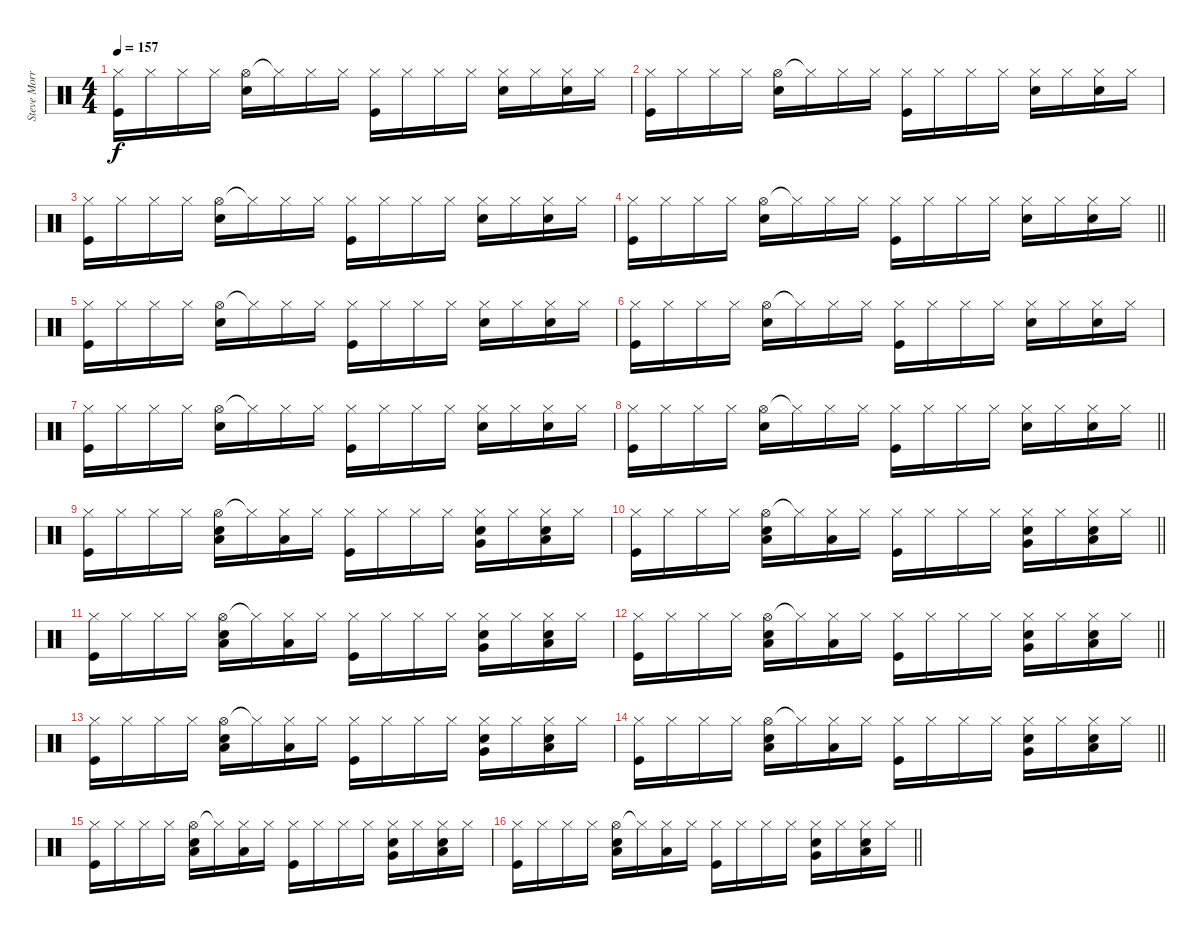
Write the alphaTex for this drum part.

\track ("Steve Morris" "Steve Morr") {instrument percussion}
\staff {score}
\articulation defaults
\ts (4 4)
\tempo 157
\clef neutral
\ks c
("Hi-Hat (closed)" "Kick (hit)").16{dy f} "Hi-Hat (closed)".16 "Hi-Hat (closed)".16 "Hi-Hat (closed)".16 ("Hi-Hat (open)" "Electric Snare (hit)").16 "Hi-Hat (closed)"{t}.16 "Hi-Hat (closed)".16 "Hi-Hat (closed)".16 ("Hi-Hat (closed)" "Kick (hit)").16 "Hi-Hat (closed)".16 "Hi-Hat (closed)".16 "Hi-Hat (closed)".16 ("Hi-Hat (closed)" "Electric Snare (hit)").16 "Hi-Hat (closed)".16 ("Hi-Hat (closed)" "Electric Snare (hit)").16 "Hi-Hat (closed)".16 |
("Hi-Hat (closed)" "Kick (hit)").16 "Hi-Hat (closed)".16 "Hi-Hat (closed)".16 "Hi-Hat (closed)".16 ("Hi-Hat (open)" "Electric Snare (hit)").16 "Hi-Hat (closed)"{t}.16 "Hi-Hat (closed)".16 "Hi-Hat (closed)".16 ("Hi-Hat (closed)" "Kick (hit)").16 "Hi-Hat (closed)".16 "Hi-Hat (closed)".16 "Hi-Hat (closed)".16 ("Hi-Hat (closed)" "Electric Snare (hit)").16 "Hi-Hat (closed)".16 ("Hi-Hat (closed)" "Electric Snare (hit)").16 "Hi-Hat (closed)".16 |
("Hi-Hat (closed)" "Kick (hit)").16 "Hi-Hat (closed)".16 "Hi-Hat (closed)".16 "Hi-Hat (closed)".16 ("Hi-Hat (open)" "Electric Snare (hit)").16 "Hi-Hat (closed)"{t}.16 "Hi-Hat (closed)".16 "Hi-Hat (closed)".16 ("Hi-Hat (closed)" "Kick (hit)").16 "Hi-Hat (closed)".16 "Hi-Hat (closed)".16 "Hi-Hat (closed)".16 ("Hi-Hat (closed)" "Electric Snare (hit)").16 "Hi-Hat (closed)".16 ("Hi-Hat (closed)" "Electric Snare (hit)").16 "Hi-Hat (closed)".16 |
\barLineRight lightlight
("Hi-Hat (closed)" "Kick (hit)").16 "Hi-Hat (closed)".16 "Hi-Hat (closed)".16 "Hi-Hat (closed)".16 ("Hi-Hat (open)" "Electric Snare (hit)").16 "Hi-Hat (closed)"{t}.16 "Hi-Hat (closed)".16 "Hi-Hat (closed)".16 ("Hi-Hat (closed)" "Kick (hit)").16 "Hi-Hat (closed)".16 "Hi-Hat (closed)".16 "Hi-Hat (closed)".16 ("Hi-Hat (closed)" "Electric Snare (hit)").16 "Hi-Hat (closed)".16 ("Hi-Hat (closed)" "Electric Snare (hit)").16 "Hi-Hat (closed)".16 |
("Hi-Hat (closed)" "Kick (hit)").16 "Hi-Hat (closed)".16 "Hi-Hat (closed)".16 "Hi-Hat (closed)".16 ("Hi-Hat (open)" "Electric Snare (hit)").16 "Hi-Hat (closed)"{t}.16 "Hi-Hat (closed)".16 "Hi-Hat (closed)".16 ("Hi-Hat (closed)" "Kick (hit)").16 "Hi-Hat (closed)".16 "Hi-Hat (closed)".16 "Hi-Hat (closed)".16 ("Hi-Hat (closed)" "Electric Snare (hit)").16 "Hi-Hat (closed)".16 ("Hi-Hat (closed)" "Electric Snare (hit)").16 "Hi-Hat (closed)".16 |
("Hi-Hat (closed)" "Kick (hit)").16 "Hi-Hat (closed)".16 "Hi-Hat (closed)".16 "Hi-Hat (closed)".16 ("Hi-Hat (open)" "Electric Snare (hit)").16 "Hi-Hat (closed)"{t}.16 "Hi-Hat (closed)".16 "Hi-Hat (closed)".16 ("Hi-Hat (closed)" "Kick (hit)").16 "Hi-Hat (closed)".16 "Hi-Hat (closed)".16 "Hi-Hat (closed)".16 ("Hi-Hat (closed)" "Electric Snare (hit)").16 "Hi-Hat (closed)".16 ("Hi-Hat (closed)" "Electric Snare (hit)").16 "Hi-Hat (closed)".16 |
("Hi-Hat (closed)" "Kick (hit)").16 "Hi-Hat (closed)".16 "Hi-Hat (closed)".16 "Hi-Hat (closed)".16 ("Hi-Hat (open)" "Electric Snare (hit)").16 "Hi-Hat (closed)"{t}.16 "Hi-Hat (closed)".16 "Hi-Hat (closed)".16 ("Hi-Hat (closed)" "Kick (hit)").16 "Hi-Hat (closed)".16 "Hi-Hat (closed)".16 "Hi-Hat (closed)".16 ("Hi-Hat (closed)" "Electric Snare (hit)").16 "Hi-Hat (closed)".16 ("Hi-Hat (closed)" "Electric Snare (hit)").16 "Hi-Hat (closed)".16 |
\barLineRight lightlight
("Hi-Hat (closed)" "Kick (hit)").16 "Hi-Hat (closed)".16 "Hi-Hat (closed)".16 "Hi-Hat (closed)".16 ("Hi-Hat (open)" "Electric Snare (hit)").16 "Hi-Hat (closed)"{t}.16 "Hi-Hat (closed)".16 "Hi-Hat (closed)".16 ("Hi-Hat (closed)" "Kick (hit)").16 "Hi-Hat (closed)".16 "Hi-Hat (closed)".16 "Hi-Hat (closed)".16 ("Hi-Hat (closed)" "Electric Snare (hit)").16 "Hi-Hat (closed)".16 ("Hi-Hat (closed)" "Electric Snare (hit)").16 "Hi-Hat (closed)".16 |
("Hi-Hat (closed)" "Kick (hit)").16 "Hi-Hat (closed)".16 "Hi-Hat (closed)".16 "Hi-Hat (closed)".16 ("Hi-Hat (open)" "Low Tom (hit)" "Electric Snare (hit)").16 "Hi-Hat (closed)"{t}.16 ("Hi-Hat (closed)" "Low Tom (hit)").16 "Hi-Hat (closed)".16 ("Hi-Hat (closed)" "Kick (hit)").16 "Hi-Hat (closed)".16 "Hi-Hat (closed)".16 "Hi-Hat (closed)".16 ("Hi-Hat (closed)" "Very Low Tom (hit)" "Electric Snare (hit)").16 "Hi-Hat (closed)".16 ("Hi-Hat (closed)" "Low Floor Tom (hit)" "Electric Snare (hit)").16 "Hi-Hat (closed)".16 |
\barLineRight lightlight
("Hi-Hat (closed)" "Kick (hit)").16 "Hi-Hat (closed)".16 "Hi-Hat (closed)".16 "Hi-Hat (closed)".16 ("Hi-Hat (open)" "Low Tom (hit)" "Electric Snare (hit)").16 "Hi-Hat (closed)"{t}.16 ("Hi-Hat (closed)" "Low Tom (hit)").16 "Hi-Hat (closed)".16 ("Hi-Hat (closed)" "Kick (hit)").16 "Hi-Hat (closed)".16 "Hi-Hat (closed)".16 "Hi-Hat (closed)".16 ("Hi-Hat (closed)" "Very Low Tom (hit)" "Electric Snare (hit)").16 "Hi-Hat (closed)".16 ("Hi-Hat (closed)" "Low Floor Tom (hit)" "Electric Snare (hit)").16 "Hi-Hat (closed)".16 |
("Hi-Hat (closed)" "Kick (hit)").16 "Hi-Hat (closed)".16 "Hi-Hat (closed)".16 "Hi-Hat (closed)".16 ("Hi-Hat (open)" "Low Tom (hit)" "Electric Snare (hit)").16 "Hi-Hat (closed)"{t}.16 ("Hi-Hat (closed)" "Low Tom (hit)").16 "Hi-Hat (closed)".16 ("Hi-Hat (closed)" "Kick (hit)").16 "Hi-Hat (closed)".16 "Hi-Hat (closed)".16 "Hi-Hat (closed)".16 ("Hi-Hat (closed)" "Very Low Tom (hit)" "Electric Snare (hit)").16 "Hi-Hat (closed)".16 ("Hi-Hat (closed)" "Low Floor Tom (hit)" "Electric Snare (hit)").16 "Hi-Hat (closed)".16 |
\barLineRight lightlight
("Hi-Hat (closed)" "Kick (hit)").16 "Hi-Hat (closed)".16 "Hi-Hat (closed)".16 "Hi-Hat (closed)".16 ("Hi-Hat (open)" "Low Tom (hit)" "Electric Snare (hit)").16 "Hi-Hat (closed)"{t}.16 ("Hi-Hat (closed)" "Low Tom (hit)").16 "Hi-Hat (closed)".16 ("Hi-Hat (closed)" "Kick (hit)").16 "Hi-Hat (closed)".16 "Hi-Hat (closed)".16 "Hi-Hat (closed)".16 ("Hi-Hat (closed)" "Very Low Tom (hit)" "Electric Snare (hit)").16 "Hi-Hat (closed)".16 ("Hi-Hat (closed)" "Low Floor Tom (hit)" "Electric Snare (hit)").16 "Hi-Hat (closed)".16 |
("Hi-Hat (closed)" "Kick (hit)").16 "Hi-Hat (closed)".16 "Hi-Hat (closed)".16 "Hi-Hat (closed)".16 ("Hi-Hat (open)" "Low Tom (hit)" "Electric Snare (hit)").16 "Hi-Hat (closed)"{t}.16 ("Hi-Hat (closed)" "Low Tom (hit)").16 "Hi-Hat (closed)".16 ("Hi-Hat (closed)" "Kick (hit)").16 "Hi-Hat (closed)".16 "Hi-Hat (closed)".16 "Hi-Hat (closed)".16 ("Hi-Hat (closed)" "Very Low Tom (hit)" "Electric Snare (hit)").16 "Hi-Hat (closed)".16 ("Hi-Hat (closed)" "Low Floor Tom (hit)" "Electric Snare (hit)").16 "Hi-Hat (closed)".16 |
\barLineRight lightlight
("Hi-Hat (closed)" "Kick (hit)").16 "Hi-Hat (closed)".16 "Hi-Hat (closed)".16 "Hi-Hat (closed)".16 ("Hi-Hat (open)" "Low Tom (hit)" "Electric Snare (hit)").16 "Hi-Hat (closed)"{t}.16 ("Hi-Hat (closed)" "Low Tom (hit)").16 "Hi-Hat (closed)".16 ("Hi-Hat (closed)" "Kick (hit)").16 "Hi-Hat (closed)".16 "Hi-Hat (closed)".16 "Hi-Hat (closed)".16 ("Hi-Hat (closed)" "Very Low Tom (hit)" "Electric Snare (hit)").16 "Hi-Hat (closed)".16 ("Hi-Hat (closed)" "Low Floor Tom (hit)" "Electric Snare (hit)").16 "Hi-Hat (closed)".16 |
("Hi-Hat (closed)" "Kick (hit)").16 "Hi-Hat (closed)".16 "Hi-Hat (closed)".16 "Hi-Hat (closed)".16 ("Hi-Hat (open)" "Low Tom (hit)" "Electric Snare (hit)").16 "Hi-Hat (closed)"{t}.16 ("Hi-Hat (closed)" "Low Tom (hit)").16 "Hi-Hat (closed)".16 ("Hi-Hat (closed)" "Kick (hit)").16 "Hi-Hat (closed)".16 "Hi-Hat (closed)".16 "Hi-Hat (closed)".16 ("Hi-Hat (closed)" "Very Low Tom (hit)" "Electric Snare (hit)").16 "Hi-Hat (closed)".16 ("Hi-Hat (closed)" "Low Floor Tom (hit)" "Electric Snare (hit)").16 "Hi-Hat (closed)".16 |
\barLineRight lightlight
("Hi-Hat (closed)" "Kick (hit)").16 "Hi-Hat (closed)".16 "Hi-Hat (closed)".16 "Hi-Hat (closed)".16 ("Hi-Hat (open)" "Low Tom (hit)" "Electric Snare (hit)").16 "Hi-Hat (closed)"{t}.16 ("Hi-Hat (closed)" "Low Tom (hit)").16 "Hi-Hat (closed)".16 ("Hi-Hat (closed)" "Kick (hit)").16 "Hi-Hat (closed)".16 "Hi-Hat (closed)".16 "Hi-Hat (closed)".16 ("Hi-Hat (closed)" "Very Low Tom (hit)" "Electric Snare (hit)").16 "Hi-Hat (closed)".16 ("Hi-Hat (closed)" "Low Floor Tom (hit)" "Electric Snare (hit)").16 "Hi-Hat (closed)".16
